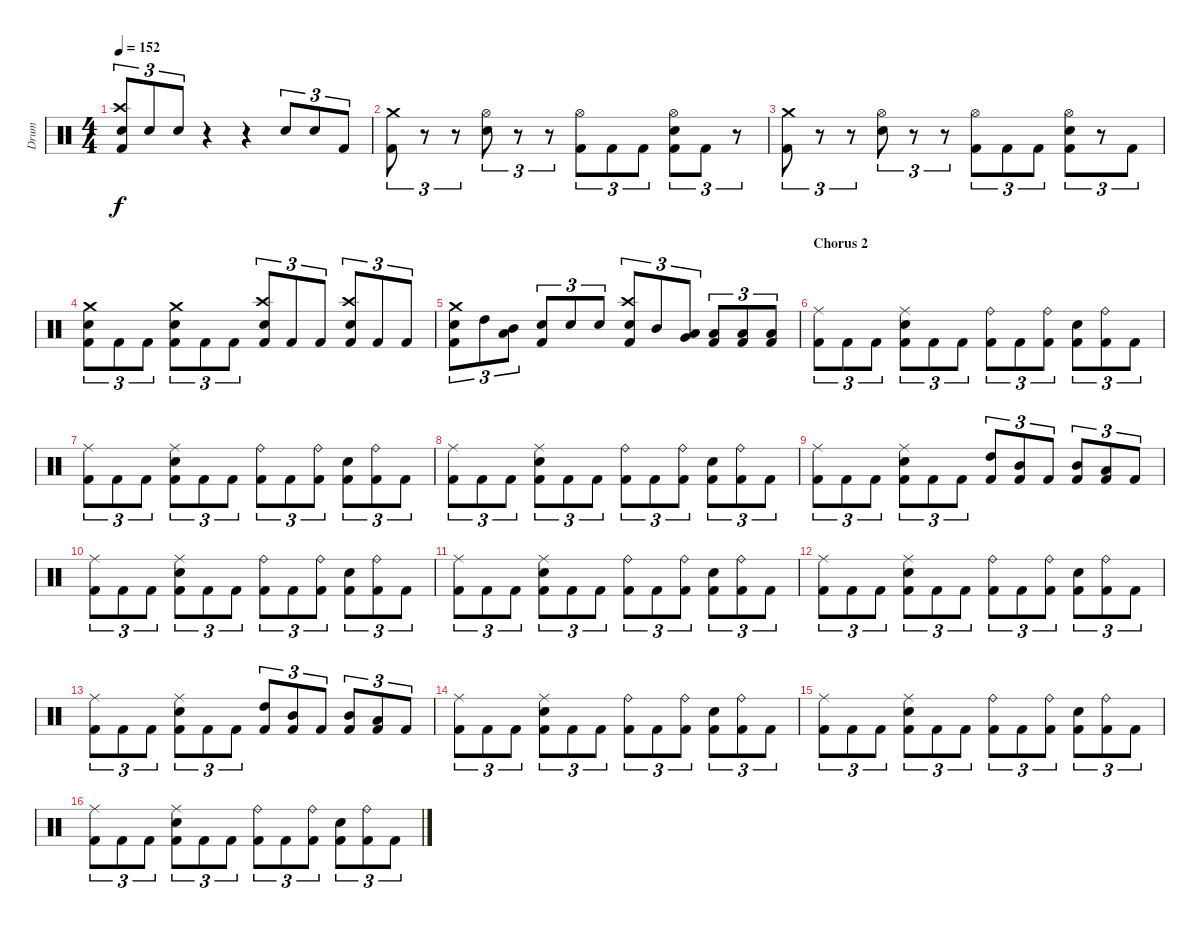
\track ("Drum" "Drum") {instrument percussion}
\staff {score}
\articulation defaults
\ts (4 4)
\tempo 152
\clef neutral
\ks c
("Electric Snare (hit)" "Crash high (hit)" "Kick (hit) 2").8{tu (3 2) dy f} "Electric Snare (hit)".8{tu (3 2)} "Electric Snare (hit)".8{tu (3 2)} r.4 r.4 "Electric Snare (hit)".8{tu (3 2)} "Electric Snare (hit)".8{tu (3 2)} "Kick (hit) 2".8{tu (3 2)} |
("Kick (hit) 2" "Crash medium (hit)").8{tu (3 2)} r.8{tu (3 2)} r.8{tu (3 2)} ("Hi-Hat (open)" "Electric Snare (hit)").8{tu (3 2)} r.8{tu (3 2)} r.8{tu (3 2)} ("Kick (hit) 2" "Hi-Hat (open)").8{tu (3 2)} "Kick (hit) 2".8{tu (3 2)} "Kick (hit) 2".8{tu (3 2)} ("Hi-Hat (open)" "Kick (hit) 2" "Electric Snare (hit)").8{tu (3 2)} "Kick (hit) 2".8{tu (3 2)} r.8{tu (3 2)} |
("Kick (hit) 2" "Crash medium (hit)").8{tu (3 2)} r.8{tu (3 2)} r.8{tu (3 2)} ("Hi-Hat (open)" "Electric Snare (hit)").8{tu (3 2)} r.8{tu (3 2)} r.8{tu (3 2)} ("Kick (hit) 2" "Hi-Hat (open)").8{tu (3 2)} "Kick (hit) 2".8{tu (3 2)} "Kick (hit) 2".8{tu (3 2)} ("Hi-Hat (open)" "Electric Snare (hit)" "Kick (hit) 2").8{tu (3 2)} r.8{tu (3 2)} "Kick (hit) 2".8{tu (3 2)} |
("Electric Snare (hit)" "Kick (hit) 2" "Crash medium (hit)").8{tu (3 2)} "Kick (hit) 2".8{tu (3 2)} "Kick (hit) 2".8{tu (3 2)} ("Kick (hit) 2" "Electric Snare (hit)" "Crash medium (hit)").8{tu (3 2)} "Kick (hit) 2".8{tu (3 2)} "Kick (hit) 2".8{tu (3 2)} ("Kick (hit) 2" "Crash high (hit)" "Electric Snare (hit)").8{tu (3 2)} "Kick (hit) 2".8{tu (3 2)} "Kick (hit) 2".8{tu (3 2)} ("Electric Snare (hit)" "Kick (hit) 2" "Crash high (hit)").8{tu (3 2)} "Kick (hit) 2".8{tu (3 2)} "Kick (hit) 2".8{tu (3 2)} |
("Electric Snare (hit)" "Crash medium (hit)" "Kick (hit) 2").8{tu (3 2)} "High Tom (hit)".8{tu (3 2)} ("Mid Tom (hit)" "Low Tom (hit)").8{tu (3 2)} ("Electric Snare (hit)" "Kick (hit) 2").8{tu (3 2)} "Electric Snare (hit)".8{tu (3 2)} "Electric Snare (hit)".8{tu (3 2)} ("Crash high (hit)" "Kick (hit) 2" "Electric Snare (hit)").8{tu (3 2)} "Mid Tom (hit)".8{tu (3 2)} ("Low Tom (hit)" "Very Low Tom (hit)").8{tu (3 2)} ("Kick (hit) 2" "Low Tom (hit)").8{tu (3 2)} ("Kick (hit) 2" "Low Tom (hit)").8{tu (3 2)} ("Kick (hit) 2" "Low Tom (hit)").8{tu (3 2)} |
\section ("" "Chorus 2")
("Ride (middle)" "Kick (hit) 2").8{tu (3 2)} "Kick (hit) 2".8{tu (3 2)} "Kick (hit) 2".8{tu (3 2)} ("Kick (hit) 2" "Electric Snare (hit)" "Ride (middle)").8{tu (3 2)} "Kick (hit) 2".8{tu (3 2)} "Kick (hit) 2".8{tu (3 2)} ("Kick (hit) 2" "Ride (bell)").8{tu (3 2)} "Kick (hit) 2".8{tu (3 2)} ("Kick (hit) 2" "Ride (bell)").8{tu (3 2)} ("Electric Snare (hit)" "Kick (hit) 2").8{tu (3 2)} ("Kick (hit) 2" "Ride (bell)").8{tu (3 2)} "Kick (hit) 2".8{tu (3 2)} |
("Kick (hit) 2" "Ride (middle)").8{tu (3 2)} "Kick (hit) 2".8{tu (3 2)} "Kick (hit) 2".8{tu (3 2)} ("Ride (middle)" "Kick (hit) 2" "Electric Snare (hit)").8{tu (3 2)} "Kick (hit) 2".8{tu (3 2)} "Kick (hit) 2".8{tu (3 2)} ("Ride (bell)" "Kick (hit) 2").8{tu (3 2)} "Kick (hit) 2".8{tu (3 2)} ("Ride (bell)" "Kick (hit) 2").8{tu (3 2)} ("Electric Snare (hit)" "Kick (hit) 2").8{tu (3 2)} ("Ride (bell)" "Kick (hit) 2").8{tu (3 2)} "Kick (hit) 2".8{tu (3 2)} |
("Kick (hit) 2" "Ride (middle)").8{tu (3 2)} "Kick (hit) 2".8{tu (3 2)} "Kick (hit) 2".8{tu (3 2)} ("Electric Snare (hit)" "Kick (hit) 2" "Ride (middle)").8{tu (3 2)} "Kick (hit) 2".8{tu (3 2)} "Kick (hit) 2".8{tu (3 2)} ("Kick (hit) 2" "Ride (bell)").8{tu (3 2)} "Kick (hit) 2".8{tu (3 2)} ("Kick (hit) 2" "Ride (bell)").8{tu (3 2)} ("Electric Snare (hit)" "Kick (hit) 2").8{tu (3 2)} ("Kick (hit) 2" "Ride (bell)").8{tu (3 2)} "Kick (hit) 2".8{tu (3 2)} |
("Ride (middle)" "Kick (hit) 2").8{tu (3 2)} "Kick (hit) 2".8{tu (3 2)} "Kick (hit) 2".8{tu (3 2)} ("Ride (middle)" "Kick (hit) 2" "Electric Snare (hit)").8{tu (3 2)} "Kick (hit) 2".8{tu (3 2)} "Kick (hit) 2".8{tu (3 2)} ("High Tom (hit)" "Kick (hit) 2").8{tu (3 2)} ("Mid Tom (hit)" "Kick (hit) 2").8{tu (3 2)} "Kick (hit) 2".8{tu (3 2)} ("Mid Tom (hit)" "Kick (hit) 2").8{tu (3 2)} ("Low Tom (hit)" "Kick (hit) 2").8{tu (3 2)} "Kick (hit) 2".8{tu (3 2)} |
("Kick (hit) 2" "Ride (middle)").8{tu (3 2)} "Kick (hit) 2".8{tu (3 2)} "Kick (hit) 2".8{tu (3 2)} ("Electric Snare (hit)" "Kick (hit) 2" "Ride (middle)").8{tu (3 2)} "Kick (hit) 2".8{tu (3 2)} "Kick (hit) 2".8{tu (3 2)} ("Kick (hit) 2" "Ride (bell)").8{tu (3 2)} "Kick (hit) 2".8{tu (3 2)} ("Kick (hit) 2" "Ride (bell)").8{tu (3 2)} ("Electric Snare (hit)" "Kick (hit) 2").8{tu (3 2)} ("Kick (hit) 2" "Ride (bell)").8{tu (3 2)} "Kick (hit) 2".8{tu (3 2)} |
("Ride (middle)" "Kick (hit) 2").8{tu (3 2)} "Kick (hit) 2".8{tu (3 2)} "Kick (hit) 2".8{tu (3 2)} ("Kick (hit) 2" "Electric Snare (hit)" "Ride (middle)").8{tu (3 2)} "Kick (hit) 2".8{tu (3 2)} "Kick (hit) 2".8{tu (3 2)} ("Kick (hit) 2" "Ride (bell)").8{tu (3 2)} "Kick (hit) 2".8{tu (3 2)} ("Kick (hit) 2" "Ride (bell)").8{tu (3 2)} ("Electric Snare (hit)" "Kick (hit) 2").8{tu (3 2)} ("Kick (hit) 2" "Ride (bell)").8{tu (3 2)} "Kick (hit) 2".8{tu (3 2)} |
("Kick (hit) 2" "Ride (middle)").8{tu (3 2)} "Kick (hit) 2".8{tu (3 2)} "Kick (hit) 2".8{tu (3 2)} ("Electric Snare (hit)" "Kick (hit) 2" "Ride (middle)").8{tu (3 2)} "Kick (hit) 2".8{tu (3 2)} "Kick (hit) 2".8{tu (3 2)} ("Kick (hit) 2" "Ride (bell)").8{tu (3 2)} "Kick (hit) 2".8{tu (3 2)} ("Kick (hit) 2" "Ride (bell)").8{tu (3 2)} ("Electric Snare (hit)" "Kick (hit) 2").8{tu (3 2)} ("Kick (hit) 2" "Ride (bell)").8{tu (3 2)} "Kick (hit) 2".8{tu (3 2)} |
("Ride (middle)" "Kick (hit) 2").8{tu (3 2)} "Kick (hit) 2".8{tu (3 2)} "Kick (hit) 2".8{tu (3 2)} ("Kick (hit) 2" "Electric Snare (hit)" "Ride (middle)").8{tu (3 2)} "Kick (hit) 2".8{tu (3 2)} "Kick (hit) 2".8{tu (3 2)} ("Kick (hit) 2" "High Tom (hit)").8{tu (3 2)} ("Mid Tom (hit)" "Kick (hit) 2").8{tu (3 2)} "Kick (hit) 2".8{tu (3 2)} ("Mid Tom (hit)" "Kick (hit) 2").8{tu (3 2)} ("Low Tom (hit)" "Kick (hit) 2").8{tu (3 2)} "Kick (hit) 2".8{tu (3 2)} |
\section ("" "")
("Kick (hit) 2" "Ride (middle)").8{tu (3 2)} "Kick (hit) 2".8{tu (3 2)} "Kick (hit) 2".8{tu (3 2)} ("Electric Snare (hit)" "Kick (hit) 2" "Ride (middle)").8{tu (3 2)} "Kick (hit) 2".8{tu (3 2)} "Kick (hit) 2".8{tu (3 2)} ("Kick (hit) 2" "Ride (bell)").8{tu (3 2)} "Kick (hit) 2".8{tu (3 2)} ("Kick (hit) 2" "Ride (bell)").8{tu (3 2)} ("Electric Snare (hit)" "Kick (hit) 2").8{tu (3 2)} ("Kick (hit) 2" "Ride (bell)").8{tu (3 2)} "Kick (hit) 2".8{tu (3 2)} |
("Kick (hit) 2" "Ride (middle)").8{tu (3 2)} "Kick (hit) 2".8{tu (3 2)} "Kick (hit) 2".8{tu (3 2)} ("Electric Snare (hit)" "Ride (middle)" "Kick (hit) 2").8{tu (3 2)} "Kick (hit) 2".8{tu (3 2)} "Kick (hit) 2".8{tu (3 2)} ("Kick (hit) 2" "Ride (bell)").8{tu (3 2)} "Kick (hit) 2".8{tu (3 2)} ("Kick (hit) 2" "Ride (bell)").8{tu (3 2)} ("Electric Snare (hit)" "Kick (hit) 2").8{tu (3 2)} ("Kick (hit) 2" "Ride (bell)").8{tu (3 2)} "Kick (hit) 2".8{tu (3 2)} |
("Kick (hit) 2" "Ride (middle)").8{tu (3 2)} "Kick (hit) 2".8{tu (3 2)} "Kick (hit) 2".8{tu (3 2)} ("Kick (hit) 2" "Electric Snare (hit)" "Ride (middle)").8{tu (3 2)} "Kick (hit) 2".8{tu (3 2)} "Kick (hit) 2".8{tu (3 2)} ("Kick (hit) 2" "Ride (bell)").8{tu (3 2)} "Kick (hit) 2".8{tu (3 2)} ("Kick (hit) 2" "Ride (bell)").8{tu (3 2)} ("Electric Snare (hit)" "Kick (hit) 2").8{tu (3 2)} ("Kick (hit) 2" "Ride (bell)").8{tu (3 2)} "Kick (hit) 2".8{tu (3 2)}
